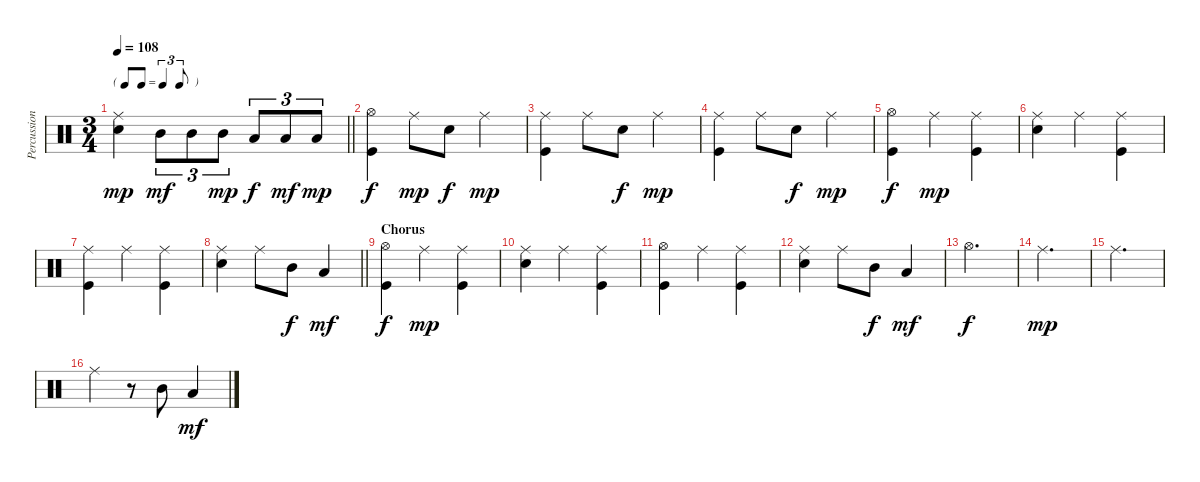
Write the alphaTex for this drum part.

\track ("Percussion" "Percussion") {instrument percussion}
\staff {score}
\articulation defaults
\ts (3 4)
\tf triplet8th
\tempo 108
\clef neutral
\barLineRight lightlight
\ks c
("Ride (middle)" "Snare (hit) 2").4{dy mp} "Mid Tom (hit)".8{tu (3 2) dy mf} "Mid Tom (hit)".8{tu (3 2)} "Mid Tom (hit)".8{tu (3 2) dy mp} "Low Tom (hit)".8{tu (3 2) dy f} "Low Tom (hit)".8{tu (3 2) dy mf} "Low Tom (hit)".8{tu (3 2) dy mp} |
("Hi-Hat (open)" "Kick (hit)").4{dy f} "Ride (middle)".8{dy mp} "Snare (hit) 2".8{dy f} "Ride (middle)".4{dy mp} |
("Ride (middle)" "Kick (hit)").4 "Ride (middle)".8 "Snare (hit) 2".8{dy f} "Ride (middle)".4{dy mp} |
("Ride (middle)" "Kick (hit)").4 "Ride (middle)".8 "Snare (hit) 2".8{dy f} "Ride (middle)".4{dy mp} |
("Hi-Hat (open)" "Kick (hit)").4{dy f} "Ride (middle)".4{dy mp} ("Ride (middle)" "Kick (hit)").4 |
("Ride (middle)" "Snare (hit) 2").4 "Ride (middle)".4 ("Ride (middle)" "Kick (hit)").4 |
("Ride (middle)" "Kick (hit)").4 "Ride (middle)".4 ("Ride (middle)" "Kick (hit)").4 |
\barLineRight lightlight
("Ride (middle)" "Snare (hit) 2").4 "Ride (middle)".8 "Mid Tom (hit)".8{dy f} "Low Tom (hit)".4{dy mf} |
\section ("" "Chorus")
("Hi-Hat (open)" "Kick (hit)").4{dy f} "Ride (middle)".4{dy mp} ("Ride (middle)" "Kick (hit)").4 |
("Ride (middle)" "Snare (hit) 2").4 "Ride (middle)".4 ("Ride (middle)" "Kick (hit)").4 |
("Hi-Hat (open)" "Kick (hit)").4 "Ride (middle)".4 ("Ride (middle)" "Kick (hit)").4 |
("Ride (middle)" "Snare (hit) 2").4 "Ride (middle)".8 "Mid Tom (hit)".8{dy f} "Low Tom (hit)".4{dy mf} |
"Hi-Hat (open)".2{d dy f} |
"Ride (middle)".2{d dy mp} |
"Ride (middle)".2{d} |
"Ride (middle)".4 r.8 "Mid Tom (hit)".8 "Low Tom (hit)".4{dy mf}
